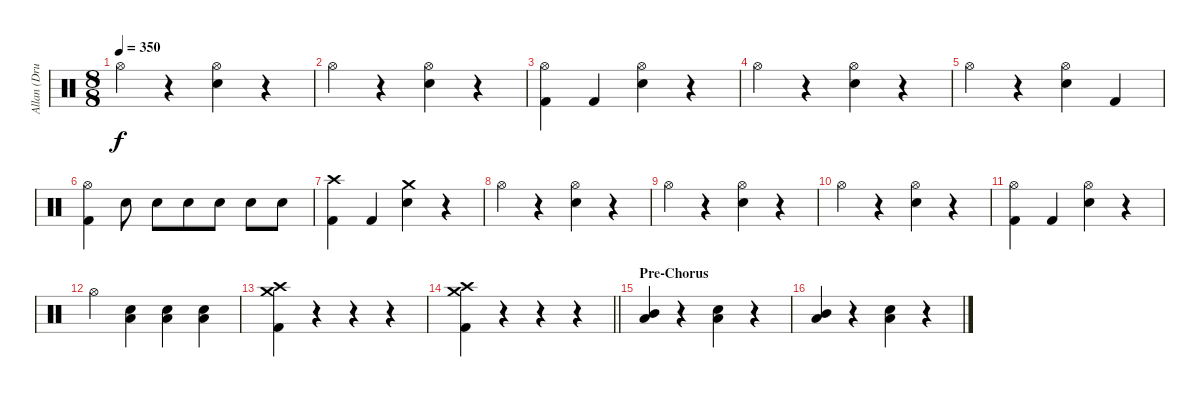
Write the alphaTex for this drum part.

\track ("Allan (Drums)" "Allan (Dru") {solo instrument percussion}
\staff {score}
\articulation defaults
\ts (8 8)
\tempo 350
\clef neutral
\ks c "Hi-Hat (open)".4{dy f}
r.4 ("Hi-Hat (open)" "Snare (hit) 2").4 r.4 |
"Hi-Hat (open)".4 r.4 ("Hi-Hat (open)" "Snare (hit) 2").4 r.4 |
("Hi-Hat (open)" "Kick (hit) 2").4 "Kick (hit) 2".4 ("Hi-Hat (open)" "Snare (hit) 2").4 r.4 |
"Hi-Hat (open)".4 r.4 ("Hi-Hat (open)" "Snare (hit) 2").4 r.4 |
"Hi-Hat (open)".4 r.4 ("Hi-Hat (open)" "Snare (hit) 2").4 "Kick (hit) 2".4 |
("Hi-Hat (open)" "Kick (hit) 2").4 "Snare (hit) 2".8 "Snare (hit) 2".8 "Snare (hit) 2".8 "Snare (hit) 2".8 "Snare (hit) 2".8 "Snare (hit) 2".8 |
("Crash high (hit)" "Kick (hit) 2").4 "Kick (hit) 2".4 ("Crash medium (hit)" "Snare (hit) 2").4 r.4 |
"Hi-Hat (open)".4 r.4 ("Hi-Hat (open)" "Snare (hit) 2").4 r.4 |
"Hi-Hat (open)".4 r.4 ("Hi-Hat (open)" "Snare (hit) 2").4 r.4 |
"Hi-Hat (open)".4 r.4 ("Hi-Hat (open)" "Snare (hit) 2").4 r.4 |
("Hi-Hat (open)" "Kick (hit) 2").4 "Kick (hit) 2".4 ("Hi-Hat (open)" "Snare (hit) 2").4 r.4 |
"Hi-Hat (open)".4 ("Low Tom (hit)" "Snare (hit) 2").4 ("Low Tom (hit)" "Snare (hit) 2").4 ("Low Tom (hit)" "Snare (hit) 2").4 |
("Crash medium (hit)" "Crash high (hit)" "Kick (hit) 2").4 r.4 r.4 r.4 |
\barLineRight lightlight
("Crash high (hit)" "Crash medium (hit)" "Kick (hit) 2").4 r.4 r.4 r.4 |
\section ("" "Pre-Chorus")
("Low Tom (hit)" "Mid Tom (hit)").4 r.4 ("Low Tom (hit)" "Snare (hit) 2").4 r.4 |
("Low Tom (hit)" "Mid Tom (hit)").4 r.4 ("Low Tom (hit)" "Snare (hit) 2").4 r.4
